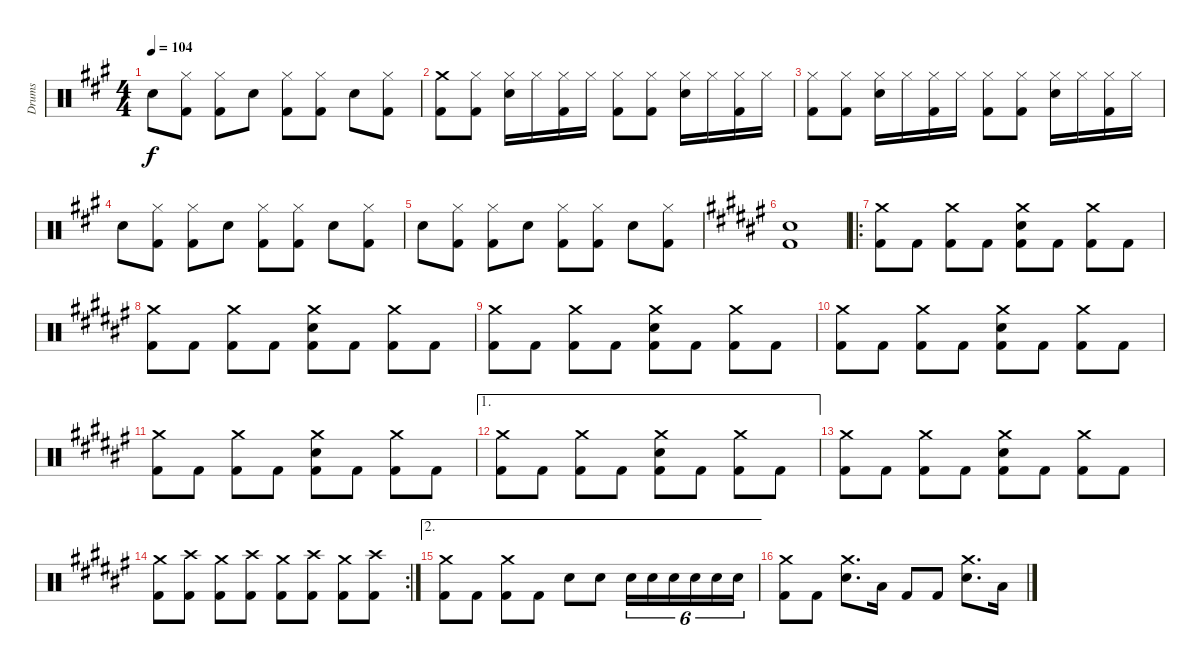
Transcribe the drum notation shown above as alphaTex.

\track ("Drums" "Drums") {instrument percussion}
\staff {score}
\articulation defaults
\ts (4 4)
\tempo 104
\clef neutral
\ks f#minor "Snare (hit) 2".8{dy f}
("Hi-Hat (closed)" "Kick (hit) 2").8 ("Hi-Hat (closed)" "Kick (hit) 2").8 "Snare (hit) 2".8 ("Hi-Hat (closed)" "Kick (hit) 2").8 ("Hi-Hat (closed)" "Kick (hit) 2").8 "Snare (hit) 2".8 ("Hi-Hat (closed)" "Kick (hit) 2").8 |
("Crash medium (hit)" "Kick (hit) 2").8 ("Hi-Hat (closed)" "Kick (hit) 2").8 ("Hi-Hat (closed)" "Snare (hit) 2").16 "Hi-Hat (closed)".16 ("Hi-Hat (closed)" "Kick (hit) 2").16 "Hi-Hat (closed)".16 ("Hi-Hat (closed)" "Kick (hit) 2").8 ("Hi-Hat (closed)" "Kick (hit) 2").8 ("Hi-Hat (closed)" "Snare (hit) 2").16 "Hi-Hat (closed)".16 ("Hi-Hat (closed)" "Kick (hit) 2").16 "Hi-Hat (closed)".16 |
("Hi-Hat (closed)" "Kick (hit) 2").8 ("Hi-Hat (closed)" "Kick (hit) 2").8 ("Hi-Hat (closed)" "Snare (hit) 2").16 "Hi-Hat (closed)".16 ("Hi-Hat (closed)" "Kick (hit) 2").16 "Hi-Hat (closed)".16 ("Hi-Hat (closed)" "Kick (hit) 2").8 ("Hi-Hat (closed)" "Kick (hit) 2").8 ("Hi-Hat (closed)" "Snare (hit) 2").16 "Hi-Hat (closed)".16 ("Hi-Hat (closed)" "Kick (hit) 2").16 "Hi-Hat (closed)".16 |
"Snare (hit) 2".8 ("Hi-Hat (closed)" "Kick (hit) 2").8 ("Hi-Hat (closed)" "Kick (hit) 2").8 "Snare (hit) 2".8 ("Hi-Hat (closed)" "Kick (hit) 2").8 ("Hi-Hat (closed)" "Kick (hit) 2").8 "Snare (hit) 2".8 ("Hi-Hat (closed)" "Kick (hit) 2").8 |
"Snare (hit) 2".8 ("Hi-Hat (closed)" "Kick (hit) 2").8 ("Hi-Hat (closed)" "Kick (hit) 2").8 "Snare (hit) 2".8 ("Hi-Hat (closed)" "Kick (hit) 2").8 ("Hi-Hat (closed)" "Kick (hit) 2").8 "Snare (hit) 2".8 ("Hi-Hat (closed)" "Kick (hit) 2").8 |
\ks f#
("Snare (hit) 2" "Kick (hit) 2").1 |
\ro
("Crash medium (hit)" "Kick (hit) 2").8 "Kick (hit) 2".8 ("Crash medium (hit)" "Kick (hit) 2").8 "Kick (hit) 2".8 ("Crash medium (hit)" "Snare (hit) 2" "Kick (hit) 2").8 "Kick (hit) 2".8 ("Crash medium (hit)" "Kick (hit) 2").8 "Kick (hit) 2".8 |
("Crash medium (hit)" "Kick (hit) 2").8 "Kick (hit) 2".8 ("Crash medium (hit)" "Kick (hit) 2").8 "Kick (hit) 2".8 ("Crash medium (hit)" "Snare (hit) 2" "Kick (hit) 2").8 "Kick (hit) 2".8 ("Crash medium (hit)" "Kick (hit) 2").8 "Kick (hit) 2".8 |
("Crash medium (hit)" "Kick (hit) 2").8 "Kick (hit) 2".8 ("Crash medium (hit)" "Kick (hit) 2").8 "Kick (hit) 2".8 ("Crash medium (hit)" "Snare (hit) 2" "Kick (hit) 2").8 "Kick (hit) 2".8 ("Crash medium (hit)" "Kick (hit) 2").8 "Kick (hit) 2".8 |
("Crash medium (hit)" "Kick (hit) 2").8 "Kick (hit) 2".8 ("Crash medium (hit)" "Kick (hit) 2").8 "Kick (hit) 2".8 ("Crash medium (hit)" "Snare (hit) 2" "Kick (hit) 2").8 "Kick (hit) 2".8 ("Crash medium (hit)" "Kick (hit) 2").8 "Kick (hit) 2".8 |
("Crash medium (hit)" "Kick (hit) 2").8 "Kick (hit) 2".8 ("Crash medium (hit)" "Kick (hit) 2").8 "Kick (hit) 2".8 ("Crash medium (hit)" "Snare (hit) 2" "Kick (hit) 2").8 "Kick (hit) 2".8 ("Crash medium (hit)" "Kick (hit) 2").8 "Kick (hit) 2".8 |
\ae 1
("Crash medium (hit)" "Kick (hit) 2").8 "Kick (hit) 2".8 ("Crash medium (hit)" "Kick (hit) 2").8 "Kick (hit) 2".8 ("Crash medium (hit)" "Snare (hit) 2" "Kick (hit) 2").8 "Kick (hit) 2".8 ("Crash medium (hit)" "Kick (hit) 2").8 "Kick (hit) 2".8 |
("Crash medium (hit)" "Kick (hit) 2").8 "Kick (hit) 2".8 ("Crash medium (hit)" "Kick (hit) 2").8 "Kick (hit) 2".8 ("Crash medium (hit)" "Snare (hit) 2" "Kick (hit) 2").8 "Kick (hit) 2".8 ("Crash medium (hit)" "Kick (hit) 2").8 "Kick (hit) 2".8 |
\rc 2
("Crash medium (hit)" "Kick (hit) 2").8 ("Crash high (hit)" "Kick (hit) 2").8 ("Crash medium (hit)" "Kick (hit) 2").8 ("Crash high (hit)" "Kick (hit) 2").8 ("Crash medium (hit)" "Kick (hit) 2").8 ("Crash high (hit)" "Kick (hit) 2").8 ("Crash medium (hit)" "Kick (hit) 2").8 ("Crash high (hit)" "Kick (hit) 2").8 |
\ae 2
("Crash medium (hit)" "Kick (hit) 2").8 "Kick (hit) 2".8 ("Crash medium (hit)" "Kick (hit) 2").8 "Kick (hit) 2".8 "Snare (hit) 2".8 "Snare (hit) 2".8 "Snare (hit) 2".16{tu (6 4)} "Snare (hit) 2".16{tu (6 4)} "Snare (hit) 2".16{tu (6 4)} "Snare (hit) 2".16{tu (6 4)} "Snare (hit) 2".16{tu (6 4)} "Snare (hit) 2".16{tu (6 4)} |
("Crash medium (hit)" "Kick (hit) 2").8 "Kick (hit) 2".8 ("Crash medium (hit)" "Snare (hit) 2").8{d} "Low Floor Tom (hit)".16 "Kick (hit) 2".8 "Kick (hit) 2".8 ("Crash medium (hit)" "Snare (hit) 2").8{d} "Low Floor Tom (hit)".16
